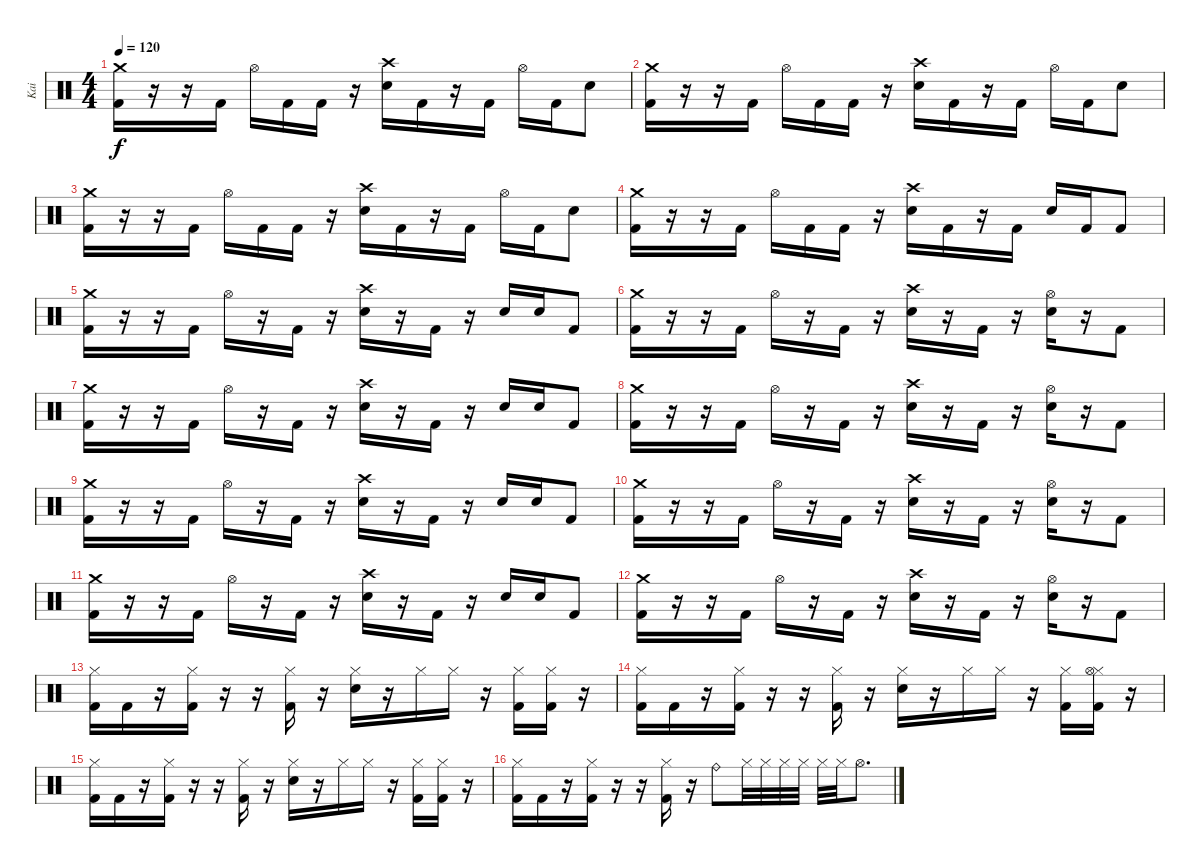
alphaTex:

\track ("Kai" "Kai") {instrument percussion}
\staff {score}
\articulation defaults
\ts (4 4)
\tempo 120
\clef neutral
\ks c
("Crash medium (hit)" "Kick (hit) 2").16{dy f} r.16 r.16 "Kick (hit) 2".16 "Hi-Hat (open)".16 "Kick (hit) 2".16 "Kick (hit) 2".16 r.16 ("Crash high (hit)" "Electric Snare (hit)").16 "Kick (hit) 2".16 r.16 "Kick (hit) 2".16 "Hi-Hat (open)".16 "Kick (hit) 2".16 "Electric Snare (hit)".8 |
("Crash medium (hit)" "Kick (hit) 2").16 r.16 r.16 "Kick (hit) 2".16 "Hi-Hat (open)".16 "Kick (hit) 2".16 "Kick (hit) 2".16 r.16 ("Crash high (hit)" "Electric Snare (hit)").16 "Kick (hit) 2".16 r.16 "Kick (hit) 2".16 "Hi-Hat (open)".16 "Kick (hit) 2".16 "Electric Snare (hit)".8 |
("Crash medium (hit)" "Kick (hit) 2").16 r.16 r.16 "Kick (hit) 2".16 "Hi-Hat (open)".16 "Kick (hit) 2".16 "Kick (hit) 2".16 r.16 ("Crash high (hit)" "Electric Snare (hit)").16 "Kick (hit) 2".16 r.16 "Kick (hit) 2".16 "Hi-Hat (open)".16 "Kick (hit) 2".16 "Electric Snare (hit)".8 |
("Crash medium (hit)" "Kick (hit) 2").16 r.16 r.16 "Kick (hit) 2".16 "Hi-Hat (open)".16 "Kick (hit) 2".16 "Kick (hit) 2".16 r.16 ("Crash high (hit)" "Electric Snare (hit)").16 "Kick (hit) 2".16 r.16 "Kick (hit) 2".16 "Electric Snare (hit)".16 "Kick (hit) 2".16 "Kick (hit) 2".8 |
("Crash medium (hit)" "Kick (hit) 2").16 r.16 r.16 "Kick (hit) 2".16 "Hi-Hat (open)".16 r.16 "Kick (hit) 2".16 r.16 ("Crash high (hit)" "Electric Snare (hit)").16 r.16 "Kick (hit) 2".16 r.16 "Electric Snare (hit)".16 "Electric Snare (hit)".16 "Kick (hit) 2".8 |
("Crash medium (hit)" "Kick (hit) 2").16 r.16 r.16 "Kick (hit) 2".16 "Hi-Hat (open)".16 r.16 "Kick (hit) 2".16 r.16 ("Crash high (hit)" "Electric Snare (hit)").16 r.16 "Kick (hit) 2".16 r.16 ("Hi-Hat (open)" "Electric Snare (hit)").16 r.16 "Kick (hit) 2".8 |
("Crash medium (hit)" "Kick (hit) 2").16 r.16 r.16 "Kick (hit) 2".16 "Hi-Hat (open)".16 r.16 "Kick (hit) 2".16 r.16 ("Crash high (hit)" "Electric Snare (hit)").16 r.16 "Kick (hit) 2".16 r.16 "Electric Snare (hit)".16 "Electric Snare (hit)".16 "Kick (hit) 2".8 |
("Crash medium (hit)" "Kick (hit) 2").16 r.16 r.16 "Kick (hit) 2".16 "Hi-Hat (open)".16 r.16 "Kick (hit) 2".16 r.16 ("Crash high (hit)" "Electric Snare (hit)").16 r.16 "Kick (hit) 2".16 r.16 ("Hi-Hat (open)" "Electric Snare (hit)").16 r.16 "Kick (hit) 2".8 |
("Crash medium (hit)" "Kick (hit) 2").16 r.16 r.16 "Kick (hit) 2".16 "Hi-Hat (open)".16 r.16 "Kick (hit) 2".16 r.16 ("Crash high (hit)" "Electric Snare (hit)").16 r.16 "Kick (hit) 2".16 r.16 "Electric Snare (hit)".16 "Electric Snare (hit)".16 "Kick (hit) 2".8 |
("Crash medium (hit)" "Kick (hit) 2").16 r.16 r.16 "Kick (hit) 2".16 "Hi-Hat (open)".16 r.16 "Kick (hit) 2".16 r.16 ("Crash high (hit)" "Electric Snare (hit)").16 r.16 "Kick (hit) 2".16 r.16 ("Hi-Hat (open)" "Electric Snare (hit)").16 r.16 "Kick (hit) 2".8 |
("Crash medium (hit)" "Kick (hit) 2").16 r.16 r.16 "Kick (hit) 2".16 "Hi-Hat (open)".16 r.16 "Kick (hit) 2".16 r.16 ("Crash high (hit)" "Electric Snare (hit)").16 r.16 "Kick (hit) 2".16 r.16 "Electric Snare (hit)".16 "Electric Snare (hit)".16 "Kick (hit) 2".8 |
("Crash medium (hit)" "Kick (hit) 2").16 r.16 r.16 "Kick (hit) 2".16 "Hi-Hat (open)".16 r.16 "Kick (hit) 2".16 r.16 ("Crash high (hit)" "Electric Snare (hit)").16 r.16 "Kick (hit) 2".16 r.16 ("Hi-Hat (open)" "Electric Snare (hit)").16 r.16 "Kick (hit) 2".8 |
("Hi-Hat (closed)" "Kick (hit) 2").16 "Kick (hit) 2".16 r.16 ("Hi-Hat (closed)" "Kick (hit) 2").16 r.16 r.16 ("Hi-Hat (closed)" "Kick (hit) 2").16 r.16 ("Hi-Hat (closed)" "Electric Snare (hit)").16 r.16 "Hi-Hat (closed)".16 "Hi-Hat (closed)".16 r.16 ("Hi-Hat (closed)" "Kick (hit) 2").16 ("Hi-Hat (closed)" "Kick (hit) 2").16 r.16 |
("Hi-Hat (closed)" "Kick (hit) 2").16 "Kick (hit) 2".16 r.16 ("Hi-Hat (closed)" "Kick (hit) 2").16 r.16 r.16 ("Hi-Hat (closed)" "Kick (hit) 2").16 r.16 ("Hi-Hat (closed)" "Electric Snare (hit)").16 r.16 "Hi-Hat (closed)".16 "Hi-Hat (closed)".16 r.16 ("Hi-Hat (closed)" "Kick (hit) 2").16 ("Hi-Hat (closed)" "Hi-Hat (open)" "Kick (hit) 2").16 r.16 |
("Hi-Hat (closed)" "Kick (hit) 2").16 "Kick (hit) 2".16 r.16 ("Hi-Hat (closed)" "Kick (hit) 2").16 r.16 r.16 ("Hi-Hat (closed)" "Kick (hit) 2").16 r.16 ("Hi-Hat (closed)" "Electric Snare (hit)").16 r.16 "Hi-Hat (closed)".16 "Hi-Hat (closed)".16 r.16 ("Hi-Hat (closed)" "Kick (hit) 2").16 ("Hi-Hat (closed)" "Kick (hit) 2").16 r.16 |
("Hi-Hat (closed)" "Kick (hit) 2").16 "Kick (hit) 2".16 r.16 ("Hi-Hat (closed)" "Kick (hit) 2").16 r.16 r.16 ("Hi-Hat (closed)" "Kick (hit) 2").16 r.16 "Ride (bell)".8 "Hi-Hat (closed)".32 "Hi-Hat (closed)".32 "Hi-Hat (closed)".32 "Hi-Hat (closed)".32 "Hi-Hat (closed)".32 "Hi-Hat (closed)".32 "Hi-Hat (open)".8{d}
